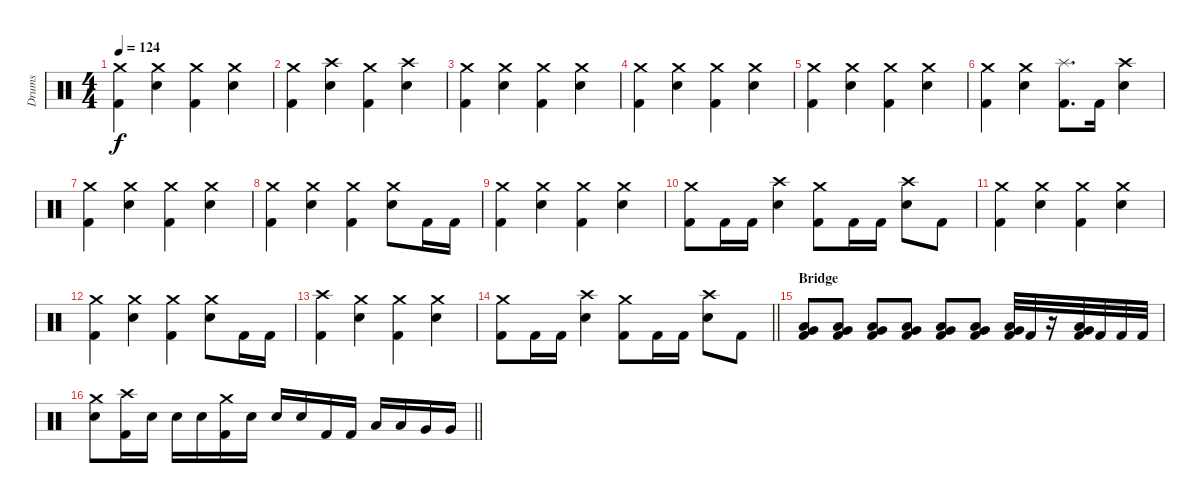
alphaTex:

\track ("Drums" "Drums") {instrument percussion}
\staff {score}
\articulation defaults
\ts (4 4)
\tempo 124
\clef neutral
\ks c
("Crash medium (hit)" "Kick (hit) 2").4{dy f} ("Crash medium (hit)" "Electric Snare (hit)").4 ("Crash medium (hit)" "Kick (hit) 2").4 ("Crash medium (hit)" "Electric Snare (hit)").4 |
("Crash medium (hit)" "Kick (hit) 2").4 ("Crash high (hit)" "Electric Snare (hit)").4 ("Crash medium (hit)" "Kick (hit) 2").4 ("Crash high (hit)" "Electric Snare (hit)").4 |
("Crash medium (hit)" "Kick (hit) 2").4 ("Crash medium (hit)" "Electric Snare (hit)").4 ("Crash medium (hit)" "Kick (hit) 2").4 ("Crash medium (hit)" "Electric Snare (hit)").4 |
("Crash medium (hit)" "Kick (hit) 2").4 ("Crash medium (hit)" "Electric Snare (hit)").4 ("Crash medium (hit)" "Kick (hit) 2").4 ("Crash medium (hit)" "Electric Snare (hit)").4 |
("Crash medium (hit)" "Kick (hit) 2").4 ("Crash medium (hit)" "Electric Snare (hit)").4 ("Crash medium (hit)" "Kick (hit) 2").4 ("Crash medium (hit)" "Electric Snare (hit)").4 |
("Crash medium (hit)" "Kick (hit) 2").4 ("Crash medium (hit)" "Electric Snare (hit)").4 ("Splash (hit)" "Kick (hit) 2").8{d} "Kick (hit) 2".16 ("Crash high (hit)" "Electric Snare (hit)").4 |
("Crash medium (hit)" "Kick (hit) 2").4 ("Crash medium (hit)" "Electric Snare (hit)").4 ("Crash medium (hit)" "Kick (hit) 2").4 ("Crash medium (hit)" "Electric Snare (hit)").4 |
("Crash medium (hit)" "Kick (hit) 2").4 ("Crash medium (hit)" "Electric Snare (hit)").4 ("Crash medium (hit)" "Kick (hit) 2").4 ("Crash medium (hit)" "Electric Snare (hit)").8 "Kick (hit) 2".16 "Kick (hit) 2".16 |
("Crash medium (hit)" "Kick (hit) 2").4 ("Crash medium (hit)" "Electric Snare (hit)").4 ("Crash medium (hit)" "Kick (hit) 2").4 ("Crash medium (hit)" "Electric Snare (hit)").4 |
("Crash medium (hit)" "Kick (hit) 2").8 "Kick (hit) 2".16 "Kick (hit) 2".16 ("Crash high (hit)" "Electric Snare (hit)").4 ("Crash medium (hit)" "Kick (hit) 2").8 "Kick (hit) 2".16 "Kick (hit) 2".16 ("Crash high (hit)" "Electric Snare (hit)").8 "Kick (hit) 2".8 |
("Crash medium (hit)" "Kick (hit) 2").4 ("Crash medium (hit)" "Electric Snare (hit)").4 ("Crash medium (hit)" "Kick (hit) 2").4 ("Crash medium (hit)" "Electric Snare (hit)").4 |
("Crash medium (hit)" "Kick (hit) 2").4 ("Crash medium (hit)" "Electric Snare (hit)").4 ("Crash medium (hit)" "Kick (hit) 2").4 ("Crash medium (hit)" "Electric Snare (hit)").8 "Kick (hit) 2".16 "Kick (hit) 2".16 |
("Crash high (hit)" "Kick (hit) 2").4 ("Crash medium (hit)" "Electric Snare (hit)").4 ("Crash medium (hit)" "Kick (hit) 2").4 ("Crash medium (hit)" "Electric Snare (hit)").4 |
\barLineRight lightlight
("Crash medium (hit)" "Kick (hit) 2").8 "Kick (hit) 2".16 "Kick (hit) 2".16 ("Crash high (hit)" "Electric Snare (hit)").4 ("Crash medium (hit)" "Kick (hit) 2").8 "Kick (hit) 2".16 "Kick (hit) 2".16 ("Crash high (hit)" "Electric Snare (hit)").8 "Kick (hit) 2".8 |
\section ("" "Bridge")
("Low Tom (hit)" "Very Low Tom (hit)" "Kick (hit) 2").8 ("Low Tom (hit)" "Very Low Tom (hit)" "Kick (hit) 2").8 ("Low Tom (hit)" "Very Low Tom (hit)" "Kick (hit) 2").8 ("Low Tom (hit)" "Very Low Tom (hit)" "Kick (hit) 2").8 ("Low Tom (hit)" "Very Low Tom (hit)" "Kick (hit) 2").8 ("Low Tom (hit)" "Very Low Tom (hit)" "Kick (hit) 2").8 ("Low Tom (hit)" "Very Low Tom (hit)" "Kick (hit) 2").32 "Kick (hit) 2".32 r.16 ("Low Tom (hit)" "Very Low Tom (hit)" "Kick (hit) 2").32 "Kick (hit) 2".32 "Kick (hit) 2".32 "Kick (hit) 2".32 |
\barLineRight lightlight
("Crash medium (hit)" "Electric Snare (hit)").8 ("Crash high (hit)" "Kick (hit) 2").16 "Electric Snare (hit)".16 "Electric Snare (hit)".16 "Electric Snare (hit)".16 ("Crash medium (hit)" "Kick (hit) 2").16 "Electric Snare (hit)".16 "Electric Snare (hit)".16 "Electric Snare (hit)".16 "Kick (hit) 2".16 "Kick (hit) 2".16 "Low Tom (hit)".16 "Low Tom (hit)".16 "Very Low Tom (hit)".16 "Very Low Tom (hit)".16
